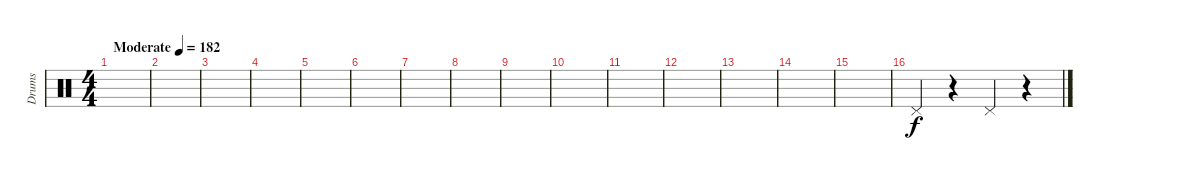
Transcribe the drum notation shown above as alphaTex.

\track ("Drums" "Drums") {instrument percussion}
\staff {score}
\articulation defaults
\ts (4 4)
\tempo (182 "Moderate")
\clef neutral
\ks c
|
|
|
|
|
|
|
|
|
|
|
|
|
|
|
"Pedal Hi-Hat (hit)".4 r.4 "Pedal Hi-Hat (hit)".4 r.4
